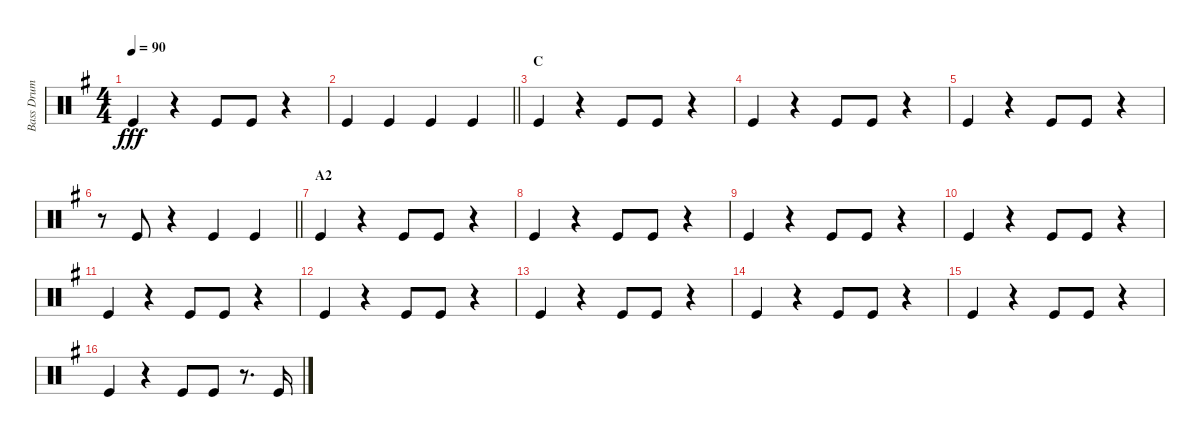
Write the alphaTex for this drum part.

\track ("Bass Drum" "Bass Drum") {instrument percussion}
\staff {score}
\articulation defaults
\ts (4 4)
\tempo 90
\clef neutral
\ks g "Kick (hit)".4{dy fff}
r.4 "Kick (hit)".8 "Kick (hit)".8 r.4 |
\barLineRight lightlight "Kick (hit)".4 "Kick (hit)".4 "Kick (hit)".4 "Kick (hit)".4
|
\section ("" "C")
"Kick (hit)".4 r.4 "Kick (hit)".8 "Kick (hit)".8 r.4 |
"Kick (hit)".4 r.4 "Kick (hit)".8 "Kick (hit)".8 r.4 |
"Kick (hit)".4 r.4 "Kick (hit)".8 "Kick (hit)".8 r.4 |
\barLineRight lightlight
r.8 "Kick (hit)".8 r.4 "Kick (hit)".4 "Kick (hit)".4 |
\section ("" "A2")
"Kick (hit)".4 r.4 "Kick (hit)".8 "Kick (hit)".8 r.4 |
"Kick (hit)".4 r.4 "Kick (hit)".8 "Kick (hit)".8 r.4 |
"Kick (hit)".4 r.4 "Kick (hit)".8 "Kick (hit)".8 r.4 |
"Kick (hit)".4 r.4 "Kick (hit)".8 "Kick (hit)".8 r.4 |
"Kick (hit)".4 r.4 "Kick (hit)".8 "Kick (hit)".8 r.4 |
"Kick (hit)".4 r.4 "Kick (hit)".8 "Kick (hit)".8 r.4 |
"Kick (hit)".4 r.4 "Kick (hit)".8 "Kick (hit)".8 r.4 |
"Kick (hit)".4 r.4 "Kick (hit)".8 "Kick (hit)".8 r.4 |
"Kick (hit)".4 r.4 "Kick (hit)".8 "Kick (hit)".8 r.4 |
"Kick (hit)".4 r.4 "Kick (hit)".8 "Kick (hit)".8 r.8{d} "Kick (hit)".16
